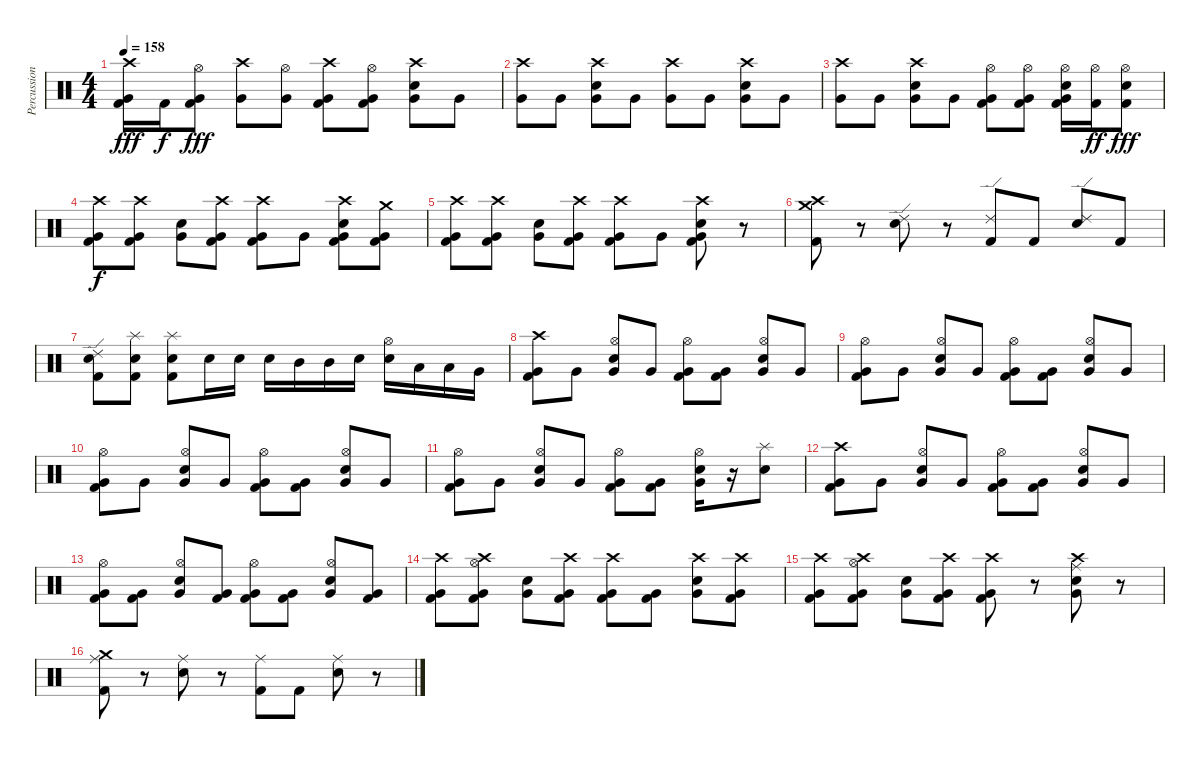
\track ("Percussion" "Percussion") {instrument percussion}
\staff {score}
\articulation defaults
\ts (4 4)
\tempo 158
\clef neutral
\ks c
("Crash high (hit)" "Very Low Tom (hit)" "Kick (hit) 2").16{dy fff} "Kick (hit) 2".16{dy f} ("Hi-Hat (open)" "Very Low Tom (hit)" "Kick (hit) 2").8{dy fff} ("Crash high (hit)" "Very Low Tom (hit)").8 ("Hi-Hat (open)" "Very Low Tom (hit)").8 ("Crash high (hit)" "Very Low Tom (hit)" "Kick (hit) 2").8 ("Hi-Hat (open)" "Very Low Tom (hit)" "Kick (hit) 2").8 ("Crash high (hit)" "Snare (hit) 2" "Very Low Tom (hit)").8 "Very Low Tom (hit)".8 |
("Crash high (hit)" "Very Low Tom (hit)").8 "Very Low Tom (hit)".8 ("Crash high (hit)" "Snare (hit) 2" "Very Low Tom (hit)").8 "Very Low Tom (hit)".8 ("Crash high (hit)" "Very Low Tom (hit)").8 "Very Low Tom (hit)".8 ("Crash high (hit)" "Snare (hit) 2" "Very Low Tom (hit)").8 "Very Low Tom (hit)".8 |
("Crash high (hit)" "Very Low Tom (hit)").8 "Very Low Tom (hit)".8 ("Crash high (hit)" "Snare (hit) 2" "Very Low Tom (hit)").8 "Very Low Tom (hit)".8 ("Hi-Hat (open)" "Kick (hit) 2" "Very Low Tom (hit)").8 ("Hi-Hat (open)" "Kick (hit) 2" "Very Low Tom (hit)").8 ("Hi-Hat (open)" "Snare (hit) 2" "Kick (hit) 2" "Very Low Tom (hit)").16 ("Hi-Hat (open)" "Kick (hit) 2").16{dy ff} ("Hi-Hat (open)" "Snare (hit) 2" "Kick (hit) 2").8{dy fff} |
("Crash high (hit)" "Kick (hit) 2" "Very Low Tom (hit)").8{dy f} ("Crash high (hit)" "Kick (hit) 2" "Very Low Tom (hit)").8 ("Snare (hit) 2" "Very Low Tom (hit)").8 ("Crash high (hit)" "Kick (hit) 2" "Very Low Tom (hit)").8 ("Crash high (hit)" "Kick (hit) 2" "Very Low Tom (hit)").8 "Very Low Tom (hit)".8 ("Crash high (hit)" "Snare (hit) 2" "Kick (hit) 2" "Very Low Tom (hit)").8 ("Crash medium (hit)" "Kick (hit) 2" "Very Low Tom (hit)").8 |
("Crash high (hit)" "Kick (hit) 2" "Very Low Tom (hit)").8 ("Crash high (hit)" "Kick (hit) 2" "Very Low Tom (hit)").8 ("Snare (hit) 2" "Very Low Tom (hit)").8 ("Crash high (hit)" "Kick (hit) 2" "Very Low Tom (hit)").8 ("Crash high (hit)" "Kick (hit) 2" "Very Low Tom (hit)").8 "Very Low Tom (hit)".8 ("Crash high (hit)" "Snare (hit) 2" "Kick (hit) 2" "Very Low Tom (hit)").8 r.8 |
("Crash high (hit)" "Crash medium (hit)" "Kick (hit) 2").8 r.8 ("Ride (edge) 2" "Snare (hit) 2").8 r.8 ("Ride (edge) 2" "Kick (hit) 2").8 "Kick (hit) 2".8 ("Ride (edge) 2" "Snare (hit) 2").8 "Kick (hit) 2".8 |
("Ride (edge) 2" "Snare (hit) 2" "Kick (hit) 2").8 ("Splash (hit)" "Snare (hit) 2" "Kick (hit) 2").8 ("Splash (hit)" "Snare (hit) 2" "Kick (hit) 2").8 "Snare (hit) 2".16 "Snare (hit) 2".16 "Snare (hit) 2".16 "Mid Tom (hit)".16 "Mid Tom (hit)".16 "Snare (hit) 2".16 ("Hi-Hat (open)" "Snare (hit) 2").16 "Low Tom (hit)".16 "Low Tom (hit)".16 "Very Low Tom (hit)".16 |
("Crash high (hit)" "Kick (hit) 2" "Very Low Tom (hit)").8 "Very Low Tom (hit)".8 ("Hi-Hat (open)" "Snare (hit) 2" "Very Low Tom (hit)").8 "Very Low Tom (hit)".8 ("Hi-Hat (open)" "Kick (hit) 2" "Very Low Tom (hit)").8 ("Kick (hit) 2" "Very Low Tom (hit)").8 ("Hi-Hat (open)" "Snare (hit) 2" "Very Low Tom (hit)").8 "Very Low Tom (hit)".8 |
("Hi-Hat (open)" "Kick (hit) 2" "Very Low Tom (hit)").8 "Very Low Tom (hit)".8 ("Hi-Hat (open)" "Snare (hit) 2" "Very Low Tom (hit)").8 "Very Low Tom (hit)".8 ("Hi-Hat (open)" "Kick (hit) 2" "Very Low Tom (hit)").8 ("Kick (hit) 2" "Very Low Tom (hit)").8 ("Hi-Hat (open)" "Snare (hit) 2" "Very Low Tom (hit)").8 "Very Low Tom (hit)".8 |
("Hi-Hat (open)" "Kick (hit) 2" "Very Low Tom (hit)").8 "Very Low Tom (hit)".8 ("Hi-Hat (open)" "Snare (hit) 2" "Very Low Tom (hit)").8 "Very Low Tom (hit)".8 ("Hi-Hat (open)" "Kick (hit) 2" "Very Low Tom (hit)").8 ("Kick (hit) 2" "Very Low Tom (hit)").8 ("Hi-Hat (open)" "Snare (hit) 2" "Very Low Tom (hit)").8 "Very Low Tom (hit)".8 |
("Hi-Hat (open)" "Kick (hit) 2" "Very Low Tom (hit)").8 "Very Low Tom (hit)".8 ("Hi-Hat (open)" "Snare (hit) 2" "Very Low Tom (hit)").8 "Very Low Tom (hit)".8 ("Hi-Hat (open)" "Kick (hit) 2" "Very Low Tom (hit)").8 ("Kick (hit) 2" "Very Low Tom (hit)").8 ("Hi-Hat (open)" "Snare (hit) 2" "Very Low Tom (hit)").16 r.16 ("Splash (hit)" "Snare (hit) 2").8 |
("Crash high (hit)" "Kick (hit) 2" "Very Low Tom (hit)").8 "Very Low Tom (hit)".8 ("Hi-Hat (open)" "Snare (hit) 2" "Very Low Tom (hit)").8 "Very Low Tom (hit)".8 ("Hi-Hat (open)" "Kick (hit) 2" "Very Low Tom (hit)").8 ("Kick (hit) 2" "Very Low Tom (hit)").8 ("Hi-Hat (open)" "Snare (hit) 2" "Very Low Tom (hit)").8 "Very Low Tom (hit)".8 |
("Hi-Hat (open)" "Kick (hit) 2" "Very Low Tom (hit)").8 ("Kick (hit) 2" "Very Low Tom (hit)").8 ("Hi-Hat (open)" "Snare (hit) 2" "Very Low Tom (hit)").8 ("Kick (hit) 2" "Very Low Tom (hit)").8 ("Hi-Hat (open)" "Kick (hit) 2" "Very Low Tom (hit)").8 ("Kick (hit) 2" "Very Low Tom (hit)").8 ("Hi-Hat (open)" "Snare (hit) 2" "Very Low Tom (hit)").8 ("Kick (hit) 2" "Very Low Tom (hit)").8 |
("Crash high (hit)" "Kick (hit) 2" "Very Low Tom (hit)").8 ("Crash high (hit)" "Hi-Hat (open)" "Kick (hit) 2" "Very Low Tom (hit)").8 ("Snare (hit) 2" "Very Low Tom (hit)").8 ("Crash high (hit)" "Kick (hit) 2" "Very Low Tom (hit)").8 ("Crash high (hit)" "Kick (hit) 2" "Very Low Tom (hit)").8 ("Kick (hit) 2" "Very Low Tom (hit)").8 ("Crash high (hit)" "Snare (hit) 2" "Very Low Tom (hit)").8 ("Crash high (hit)" "Kick (hit) 2" "Very Low Tom (hit)").8 |
("Crash high (hit)" "Kick (hit) 2" "Very Low Tom (hit)").8 ("Crash high (hit)" "Hi-Hat (open)" "Kick (hit) 2" "Very Low Tom (hit)").8 ("Snare (hit) 2" "Very Low Tom (hit)").8 ("Crash high (hit)" "Kick (hit) 2" "Very Low Tom (hit)").8 ("Crash high (hit)" "Kick (hit) 2" "Very Low Tom (hit)").8 r.8 ("Crash high (hit)" "Ride (middle)" "Snare (hit) 2" "Very Low Tom (hit)").8 r.8 |
("Ride (middle)" "Crash medium (hit)" "Kick (hit) 2").8 r.8 ("Ride (middle)" "Snare (hit) 2").8 r.8 ("Ride (middle)" "Kick (hit) 2").8 "Kick (hit) 2".8 ("Ride (middle)" "Snare (hit) 2").8 r.8
